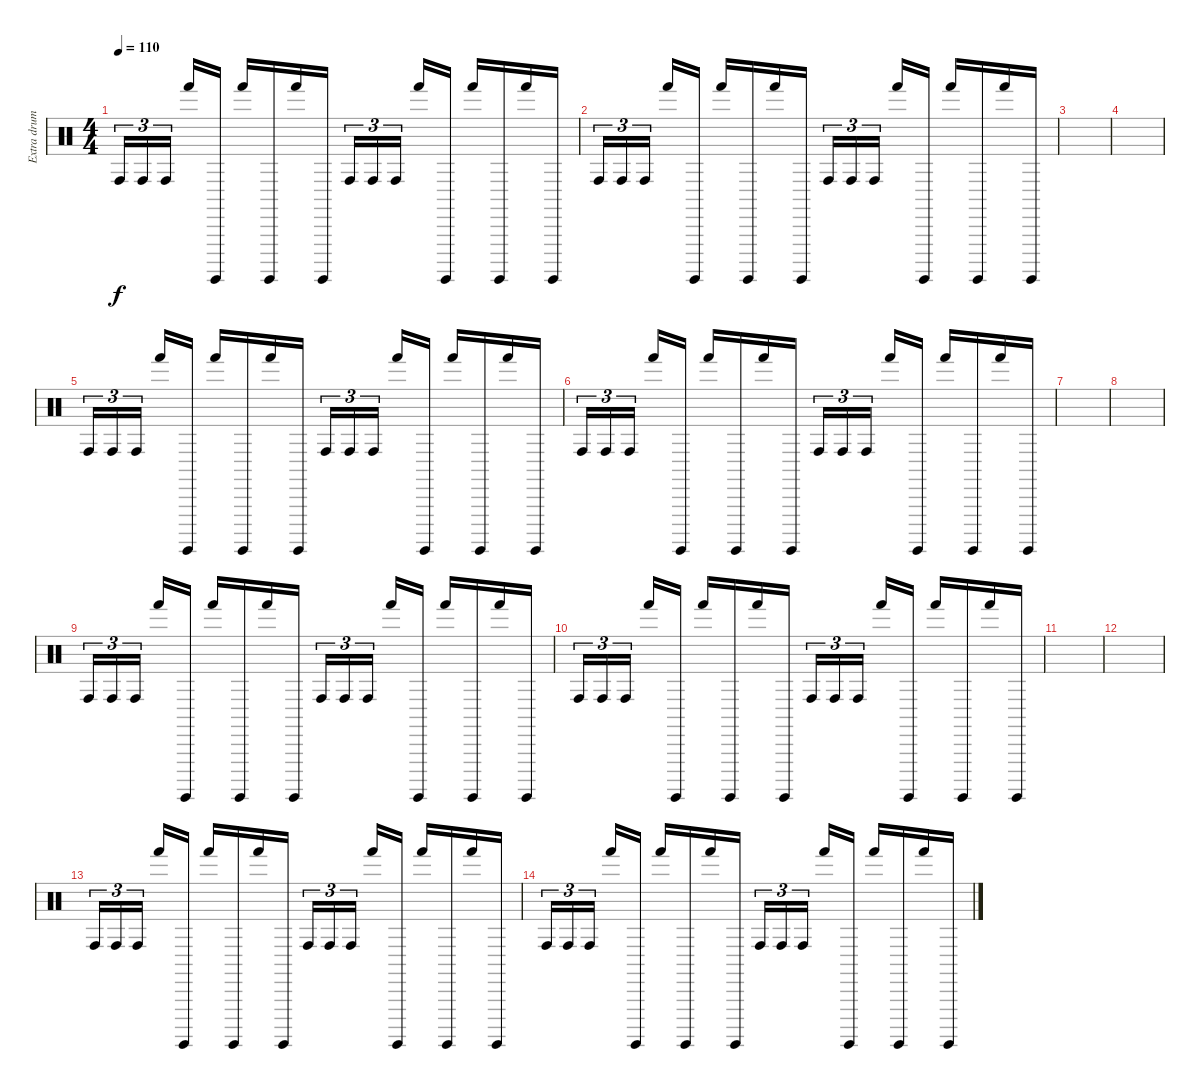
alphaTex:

\track ("Extra drums" "Extra drum") {instrument percussion}
\staff {score}
\articulation defaults
\ts (4 4)
\tempo 110
\clef neutral
\ks c "Conga high (hit)".16{tu (3 2) dy f} "Conga high (hit)".16{tu (3 2)} "Conga high (hit)".16{tu (3 2) beam splitsecondary} "Hand (hit)".16 "Surdo (hit)".16 "Hand (hit)".16 "Surdo (hit)".16 "Hand (hit)".16 "Surdo (hit)".16 "Conga high (hit)".16{tu (3 2)} "Conga high (hit)".16{tu (3 2)} "Conga high (hit)".16{tu (3 2) beam splitsecondary} "Hand (hit)".16 "Surdo (hit)".16 "Hand (hit)".16 "Surdo (hit)".16 "Hand (hit)".16 "Surdo (hit)".16
|
"Conga high (hit)".16{tu (3 2)} "Conga high (hit)".16{tu (3 2)} "Conga high (hit)".16{tu (3 2) beam splitsecondary} "Hand (hit)".16 "Surdo (hit)".16 "Hand (hit)".16 "Surdo (hit)".16 "Hand (hit)".16 "Surdo (hit)".16 "Conga high (hit)".16{tu (3 2)} "Conga high (hit)".16{tu (3 2)} "Conga high (hit)".16{tu (3 2) beam splitsecondary} "Hand (hit)".16 "Surdo (hit)".16 "Hand (hit)".16 "Surdo (hit)".16 "Hand (hit)".16 "Surdo (hit)".16 |
|
|
"Conga high (hit)".16{tu (3 2)} "Conga high (hit)".16{tu (3 2)} "Conga high (hit)".16{tu (3 2) beam splitsecondary} "Hand (hit)".16 "Surdo (hit)".16 "Hand (hit)".16 "Surdo (hit)".16 "Hand (hit)".16 "Surdo (hit)".16 "Conga high (hit)".16{tu (3 2)} "Conga high (hit)".16{tu (3 2)} "Conga high (hit)".16{tu (3 2) beam splitsecondary} "Hand (hit)".16 "Surdo (hit)".16 "Hand (hit)".16 "Surdo (hit)".16 "Hand (hit)".16 "Surdo (hit)".16 |
"Conga high (hit)".16{tu (3 2)} "Conga high (hit)".16{tu (3 2)} "Conga high (hit)".16{tu (3 2) beam splitsecondary} "Hand (hit)".16 "Surdo (hit)".16 "Hand (hit)".16 "Surdo (hit)".16 "Hand (hit)".16 "Surdo (hit)".16 "Conga high (hit)".16{tu (3 2)} "Conga high (hit)".16{tu (3 2)} "Conga high (hit)".16{tu (3 2) beam splitsecondary} "Hand (hit)".16 "Surdo (hit)".16 "Hand (hit)".16 "Surdo (hit)".16 "Hand (hit)".16 "Surdo (hit)".16 |
|
|
"Conga high (hit)".16{tu (3 2)} "Conga high (hit)".16{tu (3 2)} "Conga high (hit)".16{tu (3 2) beam splitsecondary} "Hand (hit)".16 "Surdo (hit)".16 "Hand (hit)".16 "Surdo (hit)".16 "Hand (hit)".16 "Surdo (hit)".16 "Conga high (hit)".16{tu (3 2)} "Conga high (hit)".16{tu (3 2)} "Conga high (hit)".16{tu (3 2) beam splitsecondary} "Hand (hit)".16 "Surdo (hit)".16 "Hand (hit)".16 "Surdo (hit)".16 "Hand (hit)".16 "Surdo (hit)".16 |
"Conga high (hit)".16{tu (3 2)} "Conga high (hit)".16{tu (3 2)} "Conga high (hit)".16{tu (3 2) beam splitsecondary} "Hand (hit)".16 "Surdo (hit)".16 "Hand (hit)".16 "Surdo (hit)".16 "Hand (hit)".16 "Surdo (hit)".16 "Conga high (hit)".16{tu (3 2)} "Conga high (hit)".16{tu (3 2)} "Conga high (hit)".16{tu (3 2) beam splitsecondary} "Hand (hit)".16 "Surdo (hit)".16 "Hand (hit)".16 "Surdo (hit)".16 "Hand (hit)".16 "Surdo (hit)".16 |
|
|
"Conga high (hit)".16{tu (3 2)} "Conga high (hit)".16{tu (3 2)} "Conga high (hit)".16{tu (3 2) beam splitsecondary} "Hand (hit)".16 "Surdo (hit)".16 "Hand (hit)".16 "Surdo (hit)".16 "Hand (hit)".16 "Surdo (hit)".16 "Conga high (hit)".16{tu (3 2)} "Conga high (hit)".16{tu (3 2)} "Conga high (hit)".16{tu (3 2) beam splitsecondary} "Hand (hit)".16 "Surdo (hit)".16 "Hand (hit)".16 "Surdo (hit)".16 "Hand (hit)".16 "Surdo (hit)".16 |
"Conga high (hit)".16{tu (3 2)} "Conga high (hit)".16{tu (3 2)} "Conga high (hit)".16{tu (3 2) beam splitsecondary} "Hand (hit)".16 "Surdo (hit)".16 "Hand (hit)".16 "Surdo (hit)".16 "Hand (hit)".16 "Surdo (hit)".16 "Conga high (hit)".16{tu (3 2)} "Conga high (hit)".16{tu (3 2)} "Conga high (hit)".16{tu (3 2) beam splitsecondary} "Hand (hit)".16 "Surdo (hit)".16 "Hand (hit)".16 "Surdo (hit)".16 "Hand (hit)".16 "Surdo (hit)".16
